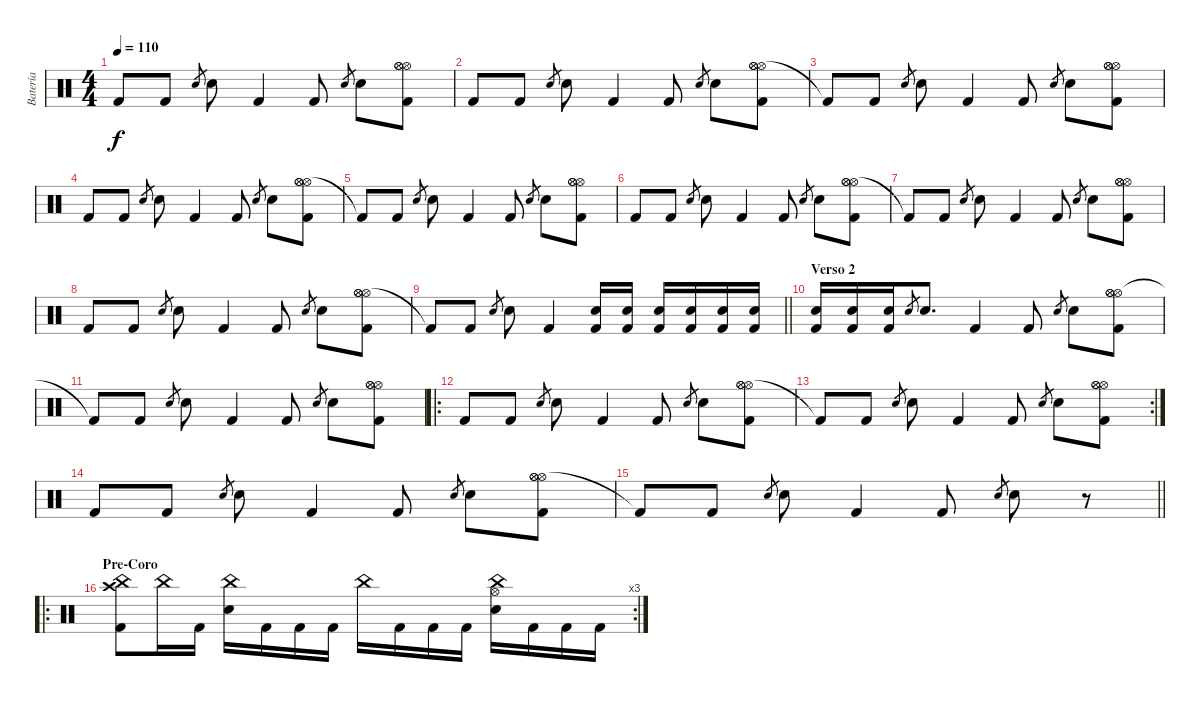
\track ("Batería" "Batería") {instrument percussion}
\staff {score}
\articulation defaults
\ts (4 4)
\tempo 110
\clef neutral
\ks c "Kick (hit) 2"{t}.8{dy f} "Kick (hit) 2".8 "Snare (hit) 2".8{gr} "Electric Snare (hit)".8 "Kick (hit) 2".4 "Kick (hit) 2".8 "Snare (hit) 2".8{gr} "Electric Snare (hit)".8
("Hi-Hat (open)" "Hi-Hat (open)" "Hi-Hat (open)" "Kick (hit) 2").8 |
"Kick (hit) 2".8 "Kick (hit) 2".8 "Snare (hit) 2".8{gr} "Electric Snare (hit)".8 "Kick (hit) 2".4 "Kick (hit) 2".8 "Snare (hit) 2".8{gr} "Electric Snare (hit)".8 ("Hi-Hat (open)" "Hi-Hat (open)" "Hi-Hat (open)" "Kick (hit) 2").8 |
"Kick (hit) 2"{t}.8 "Kick (hit) 2".8 "Snare (hit) 2".8{gr} "Electric Snare (hit)".8 "Kick (hit) 2".4 "Kick (hit) 2".8 "Snare (hit) 2".8{gr} "Electric Snare (hit)".8 ("Hi-Hat (open)" "Hi-Hat (open)" "Hi-Hat (open)" "Kick (hit) 2").8 |
"Kick (hit) 2".8 "Kick (hit) 2".8 "Snare (hit) 2".8{gr} "Electric Snare (hit)".8 "Kick (hit) 2".4 "Kick (hit) 2".8 "Snare (hit) 2".8{gr} "Electric Snare (hit)".8 ("Hi-Hat (open)" "Hi-Hat (open)" "Hi-Hat (open)" "Kick (hit) 2").8 |
"Kick (hit) 2"{t}.8 "Kick (hit) 2".8 "Snare (hit) 2".8{gr} "Electric Snare (hit)".8 "Kick (hit) 2".4 "Kick (hit) 2".8 "Snare (hit) 2".8{gr} "Electric Snare (hit)".8 ("Hi-Hat (open)" "Hi-Hat (open)" "Hi-Hat (open)" "Kick (hit) 2").8 |
"Kick (hit) 2".8 "Kick (hit) 2".8 "Snare (hit) 2".8{gr} "Electric Snare (hit)".8 "Kick (hit) 2".4 "Kick (hit) 2".8 "Snare (hit) 2".8{gr} "Electric Snare (hit)".8 ("Hi-Hat (open)" "Hi-Hat (open)" "Hi-Hat (open)" "Kick (hit) 2").8 |
"Kick (hit) 2"{t}.8 "Kick (hit) 2".8 "Snare (hit) 2".8{gr} "Electric Snare (hit)".8 "Kick (hit) 2".4 "Kick (hit) 2".8 "Snare (hit) 2".8{gr} "Electric Snare (hit)".8 ("Hi-Hat (open)" "Hi-Hat (open)" "Hi-Hat (open)" "Kick (hit) 2").8 |
"Kick (hit) 2".8 "Kick (hit) 2".8 "Snare (hit) 2".8{gr} "Electric Snare (hit)".8 "Kick (hit) 2".4 "Kick (hit) 2".8 "Snare (hit) 2".8{gr} "Electric Snare (hit)".8 ("Hi-Hat (open)" "Hi-Hat (open)" "Hi-Hat (open)" "Kick (hit) 2").8 |
\barLineRight lightlight "Kick (hit) 2"{t}.8 "Kick (hit) 2".8 "Snare (hit) 2".8{gr} "Electric Snare (hit)".8 "Kick (hit) 2".4
("Electric Snare (hit)" "Kick (hit) 2").16 ("Electric Snare (hit)" "Kick (hit) 2").16 ("Electric Snare (hit)" "Kick (hit) 2").16 ("Electric Snare (hit)" "Kick (hit) 2").16 ("Electric Snare (hit)" "Kick (hit) 2").16 ("Electric Snare (hit)" "Kick (hit) 2").16 |
\section ("" "Verso 2")
("Electric Snare (hit)" "Kick (hit) 2").16 ("Electric Snare (hit)" "Kick (hit) 2").16 ("Electric Snare (hit)" "Kick (hit) 2").16 "Snare (hit) 2".8{gr} "Electric Snare (hit)".8{d} "Kick (hit) 2".4 "Kick (hit) 2".8 "Snare (hit) 2".8{gr} "Electric Snare (hit)".8 ("Hi-Hat (open)" "Hi-Hat (open)" "Hi-Hat (open)" "Kick (hit) 2").8 |
"Kick (hit) 2"{t}.8 "Kick (hit) 2".8 "Snare (hit) 2".8{gr} "Electric Snare (hit)".8 "Kick (hit) 2".4 "Kick (hit) 2".8 "Snare (hit) 2".8{gr} "Electric Snare (hit)".8 ("Hi-Hat (open)" "Hi-Hat (open)" "Hi-Hat (open)" "Kick (hit) 2").8 |
\ro "Kick (hit) 2".8 "Kick (hit) 2".8 "Snare (hit) 2".8{gr} "Electric Snare (hit)".8 "Kick (hit) 2".4 "Kick (hit) 2".8 "Snare (hit) 2".8{gr} "Electric Snare (hit)".8
("Hi-Hat (open)" "Hi-Hat (open)" "Hi-Hat (open)" "Kick (hit) 2").8 |
\rc 2 "Kick (hit) 2"{t}.8 "Kick (hit) 2".8 "Snare (hit) 2".8{gr} "Electric Snare (hit)".8 "Kick (hit) 2".4 "Kick (hit) 2".8 "Snare (hit) 2".8{gr} "Electric Snare (hit)".8
("Hi-Hat (open)" "Hi-Hat (open)" "Hi-Hat (open)" "Kick (hit) 2").8 |
"Kick (hit) 2".8 "Kick (hit) 2".8 "Snare (hit) 2".8{gr} "Electric Snare (hit)".8 "Kick (hit) 2".4 "Kick (hit) 2".8 "Snare (hit) 2".8{gr} "Electric Snare (hit)".8 ("Hi-Hat (open)" "Hi-Hat (open)" "Hi-Hat (open)" "Kick (hit) 2").8 |
\barLineRight lightlight "Kick (hit) 2"{t}.8 "Kick (hit) 2".8 "Snare (hit) 2".8{gr} "Electric Snare (hit)".8 "Kick (hit) 2".4 "Kick (hit) 2".8 "Snare (hit) 2".8{gr} "Electric Snare (hit)".8
r.8 |
\ro
\rc 3
\section ("" "Pre-Coro")
("Crash high (hit)" "China (hit)" "Kick (hit) 2").8 "China (hit)".16 "Kick (hit) 2".16 ("China (hit)" "Electric Snare (hit)").16 "Kick (hit) 2".16 "Kick (hit) 2".16 "Kick (hit) 2".16 "China (hit)".16 "Kick (hit) 2".16 "Kick (hit) 2".16 "Kick (hit) 2".16 ("Snare (hit) 2" "Hi-Hat (open)" "China (hit)").16 "Kick (hit) 2".16 "Kick (hit) 2".16 "Kick (hit) 2".16
